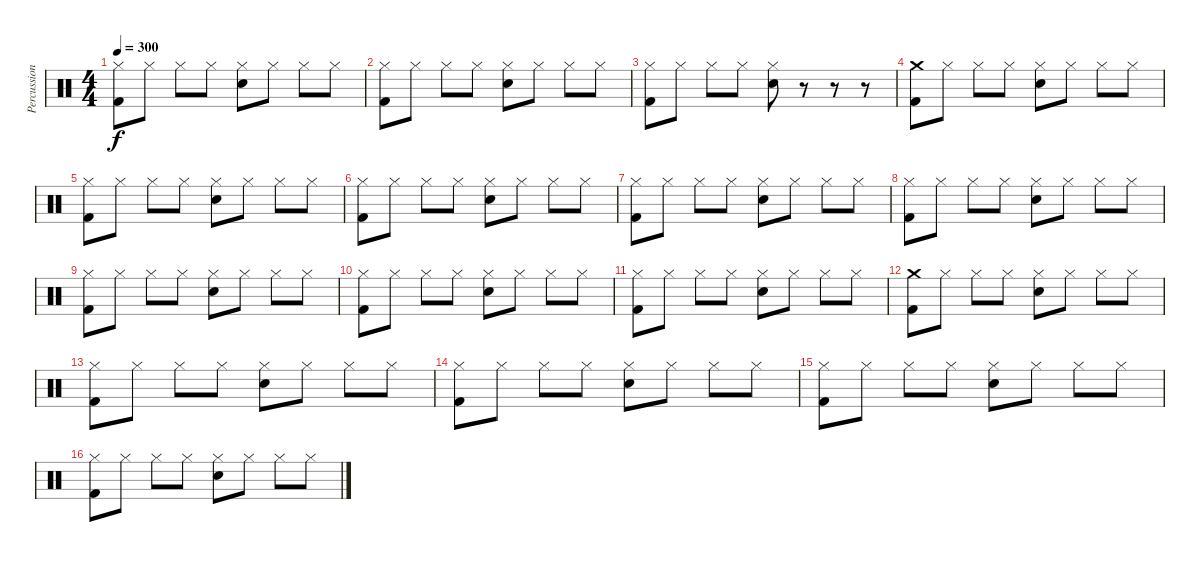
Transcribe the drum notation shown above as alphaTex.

\track ("Percussion" "Percussion") {instrument percussion}
\staff {score}
\articulation defaults
\ts (4 4)
\tempo 300
\clef neutral
\ks c
("Kick (hit) 2" "Hi-Hat (closed)").8{dy f} "Hi-Hat (closed)".8 "Hi-Hat (closed)".8 "Hi-Hat (closed)".8 ("Snare (hit) 2" "Hi-Hat (closed)").8 "Hi-Hat (closed)".8 "Hi-Hat (closed)".8 "Hi-Hat (closed)".8 |
("Kick (hit) 2" "Hi-Hat (closed)").8 "Hi-Hat (closed)".8 "Hi-Hat (closed)".8 "Hi-Hat (closed)".8 ("Snare (hit) 2" "Hi-Hat (closed)").8 "Hi-Hat (closed)".8 "Hi-Hat (closed)".8 "Hi-Hat (closed)".8 |
("Kick (hit) 2" "Hi-Hat (closed)").8 "Hi-Hat (closed)".8 "Hi-Hat (closed)".8 "Hi-Hat (closed)".8 ("Snare (hit) 2" "Hi-Hat (closed)").8 r.8 r.8 r.8 |
("Crash medium (hit)" "Kick (hit) 2").8 "Hi-Hat (closed)".8 "Hi-Hat (closed)".8 "Hi-Hat (closed)".8 ("Snare (hit) 2" "Hi-Hat (closed)").8 "Hi-Hat (closed)".8 "Hi-Hat (closed)".8 "Hi-Hat (closed)".8 |
("Kick (hit) 2" "Hi-Hat (closed)").8 "Hi-Hat (closed)".8 "Hi-Hat (closed)".8 "Hi-Hat (closed)".8 ("Snare (hit) 2" "Hi-Hat (closed)").8 "Hi-Hat (closed)".8 "Hi-Hat (closed)".8 "Hi-Hat (closed)".8 |
("Kick (hit) 2" "Hi-Hat (closed)").8 "Hi-Hat (closed)".8 "Hi-Hat (closed)".8 "Hi-Hat (closed)".8 ("Snare (hit) 2" "Hi-Hat (closed)").8 "Hi-Hat (closed)".8 "Hi-Hat (closed)".8 "Hi-Hat (closed)".8 |
("Kick (hit) 2" "Hi-Hat (closed)").8 "Hi-Hat (closed)".8 "Hi-Hat (closed)".8 "Hi-Hat (closed)".8 ("Snare (hit) 2" "Hi-Hat (closed)").8 "Hi-Hat (closed)".8 "Hi-Hat (closed)".8 "Hi-Hat (closed)".8 |
("Kick (hit) 2" "Hi-Hat (closed)").8 "Hi-Hat (closed)".8 "Hi-Hat (closed)".8 "Hi-Hat (closed)".8 ("Snare (hit) 2" "Hi-Hat (closed)").8 "Hi-Hat (closed)".8 "Hi-Hat (closed)".8 "Hi-Hat (closed)".8 |
("Kick (hit) 2" "Hi-Hat (closed)").8 "Hi-Hat (closed)".8 "Hi-Hat (closed)".8 "Hi-Hat (closed)".8 ("Snare (hit) 2" "Hi-Hat (closed)").8 "Hi-Hat (closed)".8 "Hi-Hat (closed)".8 "Hi-Hat (closed)".8 |
("Kick (hit) 2" "Hi-Hat (closed)").8 "Hi-Hat (closed)".8 "Hi-Hat (closed)".8 "Hi-Hat (closed)".8 ("Snare (hit) 2" "Hi-Hat (closed)").8 "Hi-Hat (closed)".8 "Hi-Hat (closed)".8 "Hi-Hat (closed)".8 |
("Kick (hit) 2" "Hi-Hat (closed)").8 "Hi-Hat (closed)".8 "Hi-Hat (closed)".8 "Hi-Hat (closed)".8 ("Snare (hit) 2" "Hi-Hat (closed)").8 "Hi-Hat (closed)".8 "Hi-Hat (closed)".8 "Hi-Hat (closed)".8 |
("Crash medium (hit)" "Kick (hit) 2").8 "Hi-Hat (closed)".8 "Hi-Hat (closed)".8 "Hi-Hat (closed)".8 ("Snare (hit) 2" "Hi-Hat (closed)").8 "Hi-Hat (closed)".8 "Hi-Hat (closed)".8 "Hi-Hat (closed)".8 |
("Kick (hit) 2" "Hi-Hat (closed)").8 "Hi-Hat (closed)".8 "Hi-Hat (closed)".8 "Hi-Hat (closed)".8 ("Snare (hit) 2" "Hi-Hat (closed)").8 "Hi-Hat (closed)".8 "Hi-Hat (closed)".8 "Hi-Hat (closed)".8 |
("Kick (hit) 2" "Hi-Hat (closed)").8 "Hi-Hat (closed)".8 "Hi-Hat (closed)".8 "Hi-Hat (closed)".8 ("Snare (hit) 2" "Hi-Hat (closed)").8 "Hi-Hat (closed)".8 "Hi-Hat (closed)".8 "Hi-Hat (closed)".8 |
("Kick (hit) 2" "Hi-Hat (closed)").8 "Hi-Hat (closed)".8 "Hi-Hat (closed)".8 "Hi-Hat (closed)".8 ("Snare (hit) 2" "Hi-Hat (closed)").8 "Hi-Hat (closed)".8 "Hi-Hat (closed)".8 "Hi-Hat (closed)".8 |
("Kick (hit) 2" "Hi-Hat (closed)").8 "Hi-Hat (closed)".8 "Hi-Hat (closed)".8 "Hi-Hat (closed)".8 ("Snare (hit) 2" "Hi-Hat (closed)").8 "Hi-Hat (closed)".8 "Hi-Hat (closed)".8 "Hi-Hat (closed)".8
